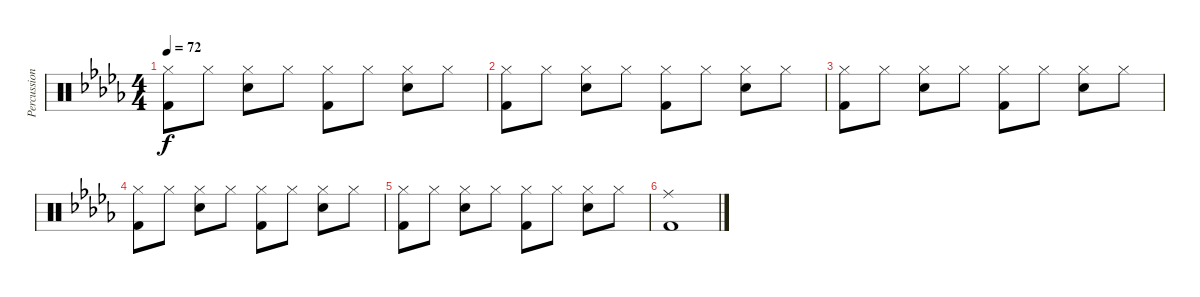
\track ("Percussions" "Percussion") {instrument percussion}
\staff {score}
\articulation defaults
\ts (4 4)
\tempo 72
\clef neutral
\ks db
("Kick (hit) 2" "Hi-Hat (closed)").8{dy f} "Hi-Hat (closed)".8 ("Snare (hit) 2" "Hi-Hat (closed)").8 "Hi-Hat (closed)".8 ("Kick (hit) 2" "Hi-Hat (closed)").8 "Hi-Hat (closed)".8 ("Snare (hit) 2" "Hi-Hat (closed)").8 "Hi-Hat (closed)".8 |
("Kick (hit) 2" "Hi-Hat (closed)").8 "Hi-Hat (closed)".8 ("Snare (hit) 2" "Hi-Hat (closed)").8 "Hi-Hat (closed)".8 ("Kick (hit) 2" "Hi-Hat (closed)").8 "Hi-Hat (closed)".8 ("Snare (hit) 2" "Hi-Hat (closed)").8 "Hi-Hat (closed)".8 |
("Kick (hit) 2" "Hi-Hat (closed)").8 "Hi-Hat (closed)".8 ("Snare (hit) 2" "Hi-Hat (closed)").8 "Hi-Hat (closed)".8 ("Kick (hit) 2" "Hi-Hat (closed)").8 "Hi-Hat (closed)".8 ("Snare (hit) 2" "Hi-Hat (closed)").8 "Hi-Hat (closed)".8 |
("Kick (hit) 2" "Hi-Hat (closed)").8 "Hi-Hat (closed)".8 ("Snare (hit) 2" "Hi-Hat (closed)").8 "Hi-Hat (closed)".8 ("Kick (hit) 2" "Hi-Hat (closed)").8 "Hi-Hat (closed)".8 ("Snare (hit) 2" "Hi-Hat (closed)").8 "Hi-Hat (closed)".8 |
("Kick (hit) 2" "Hi-Hat (closed)").8 "Hi-Hat (closed)".8 ("Snare (hit) 2" "Hi-Hat (closed)").8 "Hi-Hat (closed)".8 ("Kick (hit) 2" "Hi-Hat (closed)").8 "Hi-Hat (closed)".8 ("Snare (hit) 2" "Hi-Hat (closed)").8 "Hi-Hat (closed)".8 |
("Kick (hit) 2" "Ride (middle)").1
